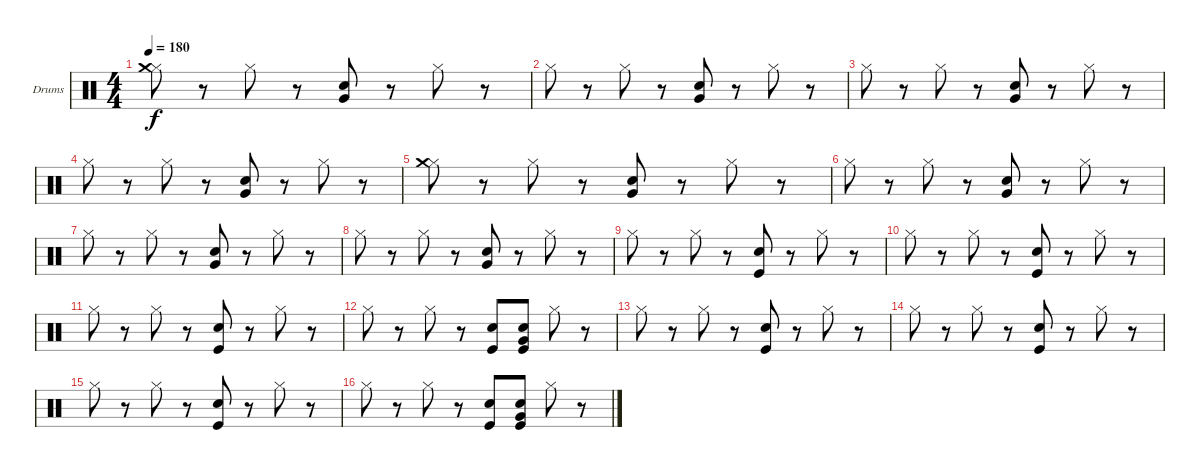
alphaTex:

\bracketExtendMode groupsimilarinstruments
\firstSystemTrackNameOrientation horizontal
\otherSystemsTrackNameOrientation horizontal
\track ("Drumkit" "Drums") {instrument percussion}
\staff {score}
\articulation defaults
\ts (4 4)
\tempo 180
\clef neutral
\ks c
("Hi-Hat (closed)" "Crash medium (hit)").8{dy f} r.8 "Hi-Hat (closed)".8 r.8 ("Snare (hit) 2" "Very Low Tom (hit)").8 r.8 "Hi-Hat (closed)".8 r.8 |
"Hi-Hat (closed)".8 r.8 "Hi-Hat (closed)".8 r.8 ("Snare (hit) 2" "Very Low Tom (hit)").8 r.8 "Hi-Hat (closed)".8 r.8 |
"Hi-Hat (closed)".8 r.8 "Hi-Hat (closed)".8 r.8 ("Snare (hit) 2" "Very Low Tom (hit)").8 r.8 "Hi-Hat (closed)".8 r.8 |
"Hi-Hat (closed)".8 r.8 "Hi-Hat (closed)".8 r.8 ("Snare (hit) 2" "Very Low Tom (hit)").8 r.8 "Hi-Hat (closed)".8 r.8 |
("Hi-Hat (closed)" "Crash medium (hit)").8 r.8 "Hi-Hat (closed)".8 r.8 ("Snare (hit) 2" "Very Low Tom (hit)").8 r.8 "Hi-Hat (closed)".8 r.8 |
"Hi-Hat (closed)".8 r.8 "Hi-Hat (closed)".8 r.8 ("Snare (hit) 2" "Very Low Tom (hit)").8 r.8 "Hi-Hat (closed)".8 r.8 |
"Hi-Hat (closed)".8 r.8 "Hi-Hat (closed)".8 r.8 ("Snare (hit) 2" "Very Low Tom (hit)").8 r.8 "Hi-Hat (closed)".8 r.8 |
"Hi-Hat (closed)".8 r.8 "Hi-Hat (closed)".8 r.8 ("Snare (hit) 2" "Very Low Tom (hit)").8 r.8 "Hi-Hat (closed)".8 r.8 |
"Hi-Hat (closed)".8 r.8 "Hi-Hat (closed)".8 r.8 ("Snare (hit) 2" "Kick (hit)").8 r.8 "Hi-Hat (closed)".8 r.8 |
"Hi-Hat (closed)".8 r.8 "Hi-Hat (closed)".8 r.8 ("Snare (hit) 2" "Kick (hit)").8 r.8 "Hi-Hat (closed)".8 r.8 |
"Hi-Hat (closed)".8 r.8 "Hi-Hat (closed)".8 r.8 ("Snare (hit) 2" "Kick (hit)").8 r.8 "Hi-Hat (closed)".8 r.8 |
"Hi-Hat (closed)".8 r.8 "Hi-Hat (closed)".8 r.8 ("Snare (hit) 2" "Kick (hit)").8 ("Snare (hit) 2" "Kick (hit)" "Very Low Tom (hit)").8 "Hi-Hat (closed)".8 r.8 |
"Hi-Hat (closed)".8 r.8 "Hi-Hat (closed)".8 r.8 ("Snare (hit) 2" "Kick (hit)").8 r.8 "Hi-Hat (closed)".8 r.8 |
"Hi-Hat (closed)".8 r.8 "Hi-Hat (closed)".8 r.8 ("Snare (hit) 2" "Kick (hit)").8 r.8 "Hi-Hat (closed)".8 r.8 |
"Hi-Hat (closed)".8 r.8 "Hi-Hat (closed)".8 r.8 ("Snare (hit) 2" "Kick (hit)").8 r.8 "Hi-Hat (closed)".8 r.8 |
"Hi-Hat (closed)".8 r.8 "Hi-Hat (closed)".8 r.8 ("Snare (hit) 2" "Kick (hit)").8 ("Snare (hit) 2" "Kick (hit)" "Very Low Tom (hit)").8 "Hi-Hat (closed)".8 r.8
